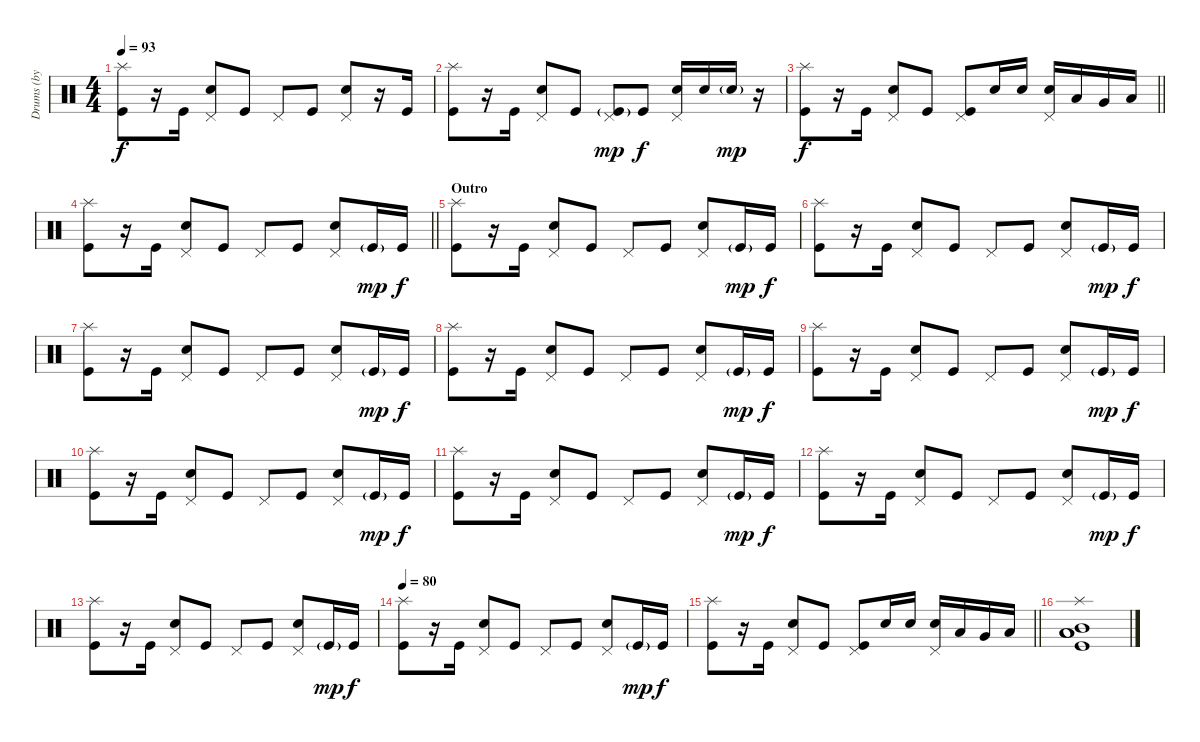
\track ("Drums (by maxor)" "Drums (by ") {instrument percussion}
\staff {score}
\articulation defaults
\ts (4 4)
\tempo 93
\clef neutral
\ks c
("Splash (hit)" "Kick (hit)").8{dy f} r.16 "Kick (hit)".16 ("Pedal Hi-Hat (hit)" "Electric Snare (hit)").8 "Kick (hit)".8 "Pedal Hi-Hat (hit)".8 "Kick (hit)".8 ("Pedal Hi-Hat (hit)" "Electric Snare (hit)").8 r.16 "Kick (hit)".16 |
("Splash (hit)" "Kick (hit)").8 r.16 "Kick (hit)".16 ("Pedal Hi-Hat (hit)" "Electric Snare (hit)").8 "Kick (hit)".8 ("Pedal Hi-Hat (hit)" "Kick (hit)"{g}).8{dy mp} "Kick (hit)".8{dy f} ("Pedal Hi-Hat (hit)" "Electric Snare (hit)").16 "Electric Snare (hit)".16 "Electric Snare (hit)"{g}.16{dy mp} r.16 |
\barLineRight lightlight
("Splash (hit)" "Kick (hit)").8{dy f} r.16 "Kick (hit)".16 ("Pedal Hi-Hat (hit)" "Electric Snare (hit)").8 "Kick (hit)".8 ("Pedal Hi-Hat (hit)" "Kick (hit)").8 "Electric Snare (hit)".16 "Electric Snare (hit)".16 ("Pedal Hi-Hat (hit)" "Electric Snare (hit)").16 "Low Tom (hit)".16 "Very Low Tom (hit)".16 "Low Tom (hit)".16 |
\barLineRight lightlight
("Splash (hit)" "Kick (hit)").8 r.16 "Kick (hit)".16 ("Pedal Hi-Hat (hit)" "Electric Snare (hit)").8 "Kick (hit)".8 "Pedal Hi-Hat (hit)".8 "Kick (hit)".8 ("Pedal Hi-Hat (hit)" "Electric Snare (hit)").8 "Kick (hit)"{g}.16{dy mp} "Kick (hit)".16{dy f} |
\section ("" "Outro")
("Splash (hit)" "Kick (hit)").8 r.16 "Kick (hit)".16 ("Pedal Hi-Hat (hit)" "Electric Snare (hit)").8 "Kick (hit)".8 "Pedal Hi-Hat (hit)".8 "Kick (hit)".8 ("Pedal Hi-Hat (hit)" "Electric Snare (hit)").8 "Kick (hit)"{g}.16{dy mp} "Kick (hit)".16{dy f} |
("Splash (hit)" "Kick (hit)").8 r.16 "Kick (hit)".16 ("Pedal Hi-Hat (hit)" "Electric Snare (hit)").8 "Kick (hit)".8 "Pedal Hi-Hat (hit)".8 "Kick (hit)".8 ("Pedal Hi-Hat (hit)" "Electric Snare (hit)").8 "Kick (hit)"{g}.16{dy mp} "Kick (hit)".16{dy f} |
("Splash (hit)" "Kick (hit)").8 r.16 "Kick (hit)".16 ("Pedal Hi-Hat (hit)" "Electric Snare (hit)").8 "Kick (hit)".8 "Pedal Hi-Hat (hit)".8 "Kick (hit)".8 ("Pedal Hi-Hat (hit)" "Electric Snare (hit)").8 "Kick (hit)"{g}.16{dy mp} "Kick (hit)".16{dy f} |
("Splash (hit)" "Kick (hit)").8 r.16 "Kick (hit)".16 ("Pedal Hi-Hat (hit)" "Electric Snare (hit)").8 "Kick (hit)".8 "Pedal Hi-Hat (hit)".8 "Kick (hit)".8 ("Pedal Hi-Hat (hit)" "Electric Snare (hit)").8 "Kick (hit)"{g}.16{dy mp} "Kick (hit)".16{dy f} |
("Splash (hit)" "Kick (hit)").8 r.16 "Kick (hit)".16 ("Pedal Hi-Hat (hit)" "Electric Snare (hit)").8 "Kick (hit)".8 "Pedal Hi-Hat (hit)".8 "Kick (hit)".8 ("Pedal Hi-Hat (hit)" "Electric Snare (hit)").8 "Kick (hit)"{g}.16{dy mp} "Kick (hit)".16{dy f} |
("Splash (hit)" "Kick (hit)").8 r.16 "Kick (hit)".16 ("Pedal Hi-Hat (hit)" "Electric Snare (hit)").8 "Kick (hit)".8 "Pedal Hi-Hat (hit)".8 "Kick (hit)".8 ("Pedal Hi-Hat (hit)" "Electric Snare (hit)").8 "Kick (hit)"{g}.16{dy mp} "Kick (hit)".16{dy f} |
("Splash (hit)" "Kick (hit)").8 r.16 "Kick (hit)".16 ("Pedal Hi-Hat (hit)" "Electric Snare (hit)").8 "Kick (hit)".8 "Pedal Hi-Hat (hit)".8 "Kick (hit)".8 ("Pedal Hi-Hat (hit)" "Electric Snare (hit)").8 "Kick (hit)"{g}.16{dy mp} "Kick (hit)".16{dy f} |
("Splash (hit)" "Kick (hit)").8 r.16 "Kick (hit)".16 ("Pedal Hi-Hat (hit)" "Electric Snare (hit)").8 "Kick (hit)".8 "Pedal Hi-Hat (hit)".8 "Kick (hit)".8 ("Pedal Hi-Hat (hit)" "Electric Snare (hit)").8 "Kick (hit)"{g}.16{dy mp} "Kick (hit)".16{dy f} |
("Splash (hit)" "Kick (hit)").8 r.16 "Kick (hit)".16 ("Pedal Hi-Hat (hit)" "Electric Snare (hit)").8 "Kick (hit)".8 "Pedal Hi-Hat (hit)".8 "Kick (hit)".8 ("Pedal Hi-Hat (hit)" "Electric Snare (hit)").8 "Kick (hit)"{g}.16{dy mp} "Kick (hit)".16{dy f} |
\tempo 80
("Splash (hit)" "Kick (hit)").8 r.16 "Kick (hit)".16 ("Pedal Hi-Hat (hit)" "Electric Snare (hit)").8 "Kick (hit)".8 "Pedal Hi-Hat (hit)".8 "Kick (hit)".8 ("Pedal Hi-Hat (hit)" "Electric Snare (hit)").8 "Kick (hit)"{g}.16{dy mp} "Kick (hit)".16{dy f} |
\barLineRight lightlight
("Splash (hit)" "Kick (hit)").8 r.16 "Kick (hit)".16 ("Pedal Hi-Hat (hit)" "Electric Snare (hit)").8 "Kick (hit)".8 ("Pedal Hi-Hat (hit)" "Kick (hit)").8 "Electric Snare (hit)".16 "Electric Snare (hit)".16 ("Pedal Hi-Hat (hit)" "Electric Snare (hit)").16 "Low Tom (hit)".16 "Very Low Tom (hit)".16 "Low Tom (hit)".16 |
("Splash (hit)" "Low Tom (hit)" "Mid Tom (hit)" "Low Tom (hit)" "Kick (hit)").1
